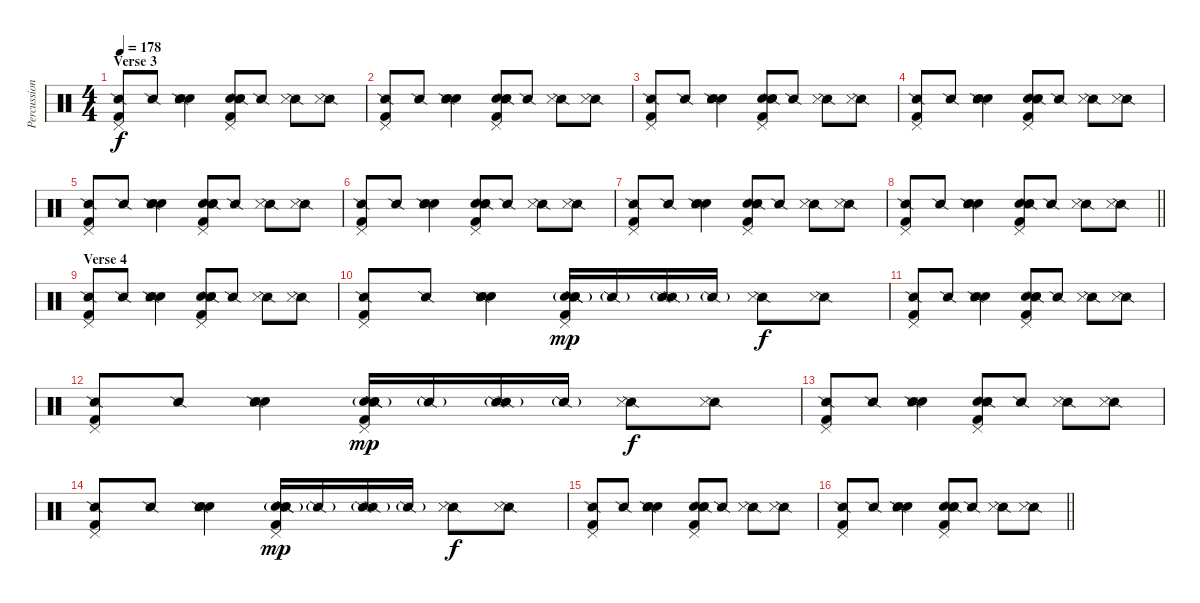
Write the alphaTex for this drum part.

\track ("Percussion" "Percussion") {instrument percussion}
\staff {score}
\articulation defaults
\ts (4 4)
\section ("" "Verse 3")
\tempo 178
\clef neutral
\ks c
("Pedal Hi-Hat (hit)" "Kick (hit) 2" "Snare (side stick) 2").8{dy f} "Snare (side stick) 2".8 ("Hand Clap (hit)" "Hand Clap (hit)" "Snare (side stick) 2" "Metronome (hit)").4 ("Pedal Hi-Hat (hit)" "Hand Clap (hit)" "Hand Clap (hit)" "Kick (hit) 2" "Snare (side stick) 2").8 "Snare (side stick) 2".8 ("Snare (side stick) 2" "Metronome (hit)").8 ("Snare (side stick) 2" "Metronome (hit)").8 |
("Pedal Hi-Hat (hit)" "Kick (hit) 2" "Snare (side stick) 2").8 "Snare (side stick) 2".8 ("Hand Clap (hit)" "Hand Clap (hit)" "Snare (side stick) 2" "Metronome (hit)").4 ("Pedal Hi-Hat (hit)" "Hand Clap (hit)" "Hand Clap (hit)" "Kick (hit) 2" "Snare (side stick) 2").8 "Snare (side stick) 2".8 ("Snare (side stick) 2" "Metronome (hit)").8 ("Snare (side stick) 2" "Metronome (hit)").8 |
("Pedal Hi-Hat (hit)" "Kick (hit) 2" "Snare (side stick) 2").8 "Snare (side stick) 2".8 ("Hand Clap (hit)" "Hand Clap (hit)" "Snare (side stick) 2" "Metronome (hit)").4 ("Pedal Hi-Hat (hit)" "Hand Clap (hit)" "Hand Clap (hit)" "Kick (hit) 2" "Snare (side stick) 2").8 "Snare (side stick) 2".8 ("Snare (side stick) 2" "Metronome (hit)").8 ("Snare (side stick) 2" "Metronome (hit)").8 |
("Pedal Hi-Hat (hit)" "Kick (hit) 2" "Snare (side stick) 2").8 "Snare (side stick) 2".8 ("Hand Clap (hit)" "Hand Clap (hit)" "Snare (side stick) 2" "Metronome (hit)").4 ("Pedal Hi-Hat (hit)" "Hand Clap (hit)" "Hand Clap (hit)" "Kick (hit) 2" "Snare (side stick) 2").8 "Snare (side stick) 2".8 ("Snare (side stick) 2" "Metronome (hit)").8 ("Snare (side stick) 2" "Metronome (hit)").8 |
("Pedal Hi-Hat (hit)" "Kick (hit) 2" "Snare (side stick) 2").8 "Snare (side stick) 2".8 ("Hand Clap (hit)" "Hand Clap (hit)" "Snare (side stick) 2" "Metronome (hit)").4 ("Pedal Hi-Hat (hit)" "Hand Clap (hit)" "Hand Clap (hit)" "Kick (hit) 2" "Snare (side stick) 2").8 "Snare (side stick) 2".8 ("Snare (side stick) 2" "Metronome (hit)").8 ("Snare (side stick) 2" "Metronome (hit)").8 |
("Pedal Hi-Hat (hit)" "Kick (hit) 2" "Snare (side stick) 2").8 "Snare (side stick) 2".8 ("Hand Clap (hit)" "Hand Clap (hit)" "Snare (side stick) 2" "Metronome (hit)").4 ("Pedal Hi-Hat (hit)" "Hand Clap (hit)" "Hand Clap (hit)" "Kick (hit) 2" "Snare (side stick) 2").8 "Snare (side stick) 2".8 ("Snare (side stick) 2" "Metronome (hit)").8 ("Snare (side stick) 2" "Metronome (hit)").8 |
("Pedal Hi-Hat (hit)" "Kick (hit) 2" "Snare (side stick) 2").8 "Snare (side stick) 2".8 ("Hand Clap (hit)" "Hand Clap (hit)" "Snare (side stick) 2" "Metronome (hit)").4 ("Pedal Hi-Hat (hit)" "Hand Clap (hit)" "Hand Clap (hit)" "Kick (hit) 2" "Snare (side stick) 2").8 "Snare (side stick) 2".8 ("Snare (side stick) 2" "Metronome (hit)").8 ("Snare (side stick) 2" "Metronome (hit)").8 |
\barLineRight lightlight
("Pedal Hi-Hat (hit)" "Kick (hit) 2" "Snare (side stick) 2").8 "Snare (side stick) 2".8 ("Hand Clap (hit)" "Hand Clap (hit)" "Snare (side stick) 2" "Metronome (hit)").4 ("Pedal Hi-Hat (hit)" "Hand Clap (hit)" "Hand Clap (hit)" "Kick (hit) 2" "Snare (side stick) 2").8 "Snare (side stick) 2".8 ("Snare (side stick) 2" "Metronome (hit)").8 ("Snare (side stick) 2" "Metronome (hit)").8 |
\section ("" "Verse 4")
("Pedal Hi-Hat (hit)" "Kick (hit) 2" "Snare (side stick) 2").8 "Snare (side stick) 2".8 ("Hand Clap (hit)" "Hand Clap (hit)" "Snare (side stick) 2" "Metronome (hit)").4 ("Pedal Hi-Hat (hit)" "Hand Clap (hit)" "Hand Clap (hit)" "Kick (hit) 2" "Snare (side stick) 2").8 "Snare (side stick) 2".8 ("Snare (side stick) 2" "Metronome (hit)").8 ("Snare (side stick) 2" "Metronome (hit)").8 |
("Pedal Hi-Hat (hit)" "Kick (hit) 2" "Snare (side stick) 2").8 "Snare (side stick) 2".8 ("Hand Clap (hit)" "Hand Clap (hit)" "Snare (side stick) 2" "Metronome (hit)").4 ("Pedal Hi-Hat (hit)" "Hand Clap (hit)" "Hand Clap (hit)" "Kick (hit) 2" "Snare (side stick) 2" "Snare (side stick) 2"{g}).16{dy mp} "Snare (side stick) 2"{g}.16 ("Snare (side stick) 2" "Snare (side stick) 2"{g}).16 "Snare (side stick) 2"{g}.16 ("Snare (side stick) 2" "Metronome (hit)").8{dy f} ("Snare (side stick) 2" "Metronome (hit)").8 |
("Pedal Hi-Hat (hit)" "Kick (hit) 2" "Snare (side stick) 2").8 "Snare (side stick) 2".8 ("Hand Clap (hit)" "Hand Clap (hit)" "Snare (side stick) 2" "Metronome (hit)").4 ("Pedal Hi-Hat (hit)" "Hand Clap (hit)" "Hand Clap (hit)" "Kick (hit) 2" "Snare (side stick) 2").8 "Snare (side stick) 2".8 ("Snare (side stick) 2" "Metronome (hit)").8 ("Snare (side stick) 2" "Metronome (hit)").8 |
("Pedal Hi-Hat (hit)" "Kick (hit) 2" "Snare (side stick) 2").8 "Snare (side stick) 2".8 ("Hand Clap (hit)" "Hand Clap (hit)" "Snare (side stick) 2" "Metronome (hit)").4 ("Pedal Hi-Hat (hit)" "Hand Clap (hit)" "Hand Clap (hit)" "Kick (hit) 2" "Snare (side stick) 2" "Snare (side stick) 2"{g}).16{dy mp} "Snare (side stick) 2"{g}.16 ("Snare (side stick) 2" "Snare (side stick) 2"{g}).16 "Snare (side stick) 2"{g}.16 ("Snare (side stick) 2" "Metronome (hit)").8{dy f} ("Snare (side stick) 2" "Metronome (hit)").8 |
("Pedal Hi-Hat (hit)" "Kick (hit) 2" "Snare (side stick) 2").8 "Snare (side stick) 2".8 ("Hand Clap (hit)" "Hand Clap (hit)" "Snare (side stick) 2" "Metronome (hit)").4 ("Pedal Hi-Hat (hit)" "Hand Clap (hit)" "Hand Clap (hit)" "Kick (hit) 2" "Snare (side stick) 2").8 "Snare (side stick) 2".8 ("Snare (side stick) 2" "Metronome (hit)").8 ("Snare (side stick) 2" "Metronome (hit)").8 |
("Pedal Hi-Hat (hit)" "Kick (hit) 2" "Snare (side stick) 2").8 "Snare (side stick) 2".8 ("Hand Clap (hit)" "Hand Clap (hit)" "Snare (side stick) 2" "Metronome (hit)").4 ("Pedal Hi-Hat (hit)" "Hand Clap (hit)" "Hand Clap (hit)" "Kick (hit) 2" "Snare (side stick) 2" "Snare (side stick) 2"{g}).16{dy mp} "Snare (side stick) 2"{g}.16 ("Snare (side stick) 2" "Snare (side stick) 2"{g}).16 "Snare (side stick) 2"{g}.16 ("Snare (side stick) 2" "Metronome (hit)").8{dy f} ("Snare (side stick) 2" "Metronome (hit)").8 |
("Pedal Hi-Hat (hit)" "Kick (hit) 2" "Snare (side stick) 2").8 "Snare (side stick) 2".8 ("Hand Clap (hit)" "Hand Clap (hit)" "Snare (side stick) 2" "Metronome (hit)").4 ("Pedal Hi-Hat (hit)" "Hand Clap (hit)" "Hand Clap (hit)" "Kick (hit) 2" "Snare (side stick) 2").8 "Snare (side stick) 2".8 ("Snare (side stick) 2" "Metronome (hit)").8 ("Snare (side stick) 2" "Metronome (hit)").8 |
\barLineRight lightlight
("Pedal Hi-Hat (hit)" "Kick (hit) 2" "Snare (side stick) 2").8 "Snare (side stick) 2".8 ("Hand Clap (hit)" "Hand Clap (hit)" "Snare (side stick) 2" "Metronome (hit)").4 ("Pedal Hi-Hat (hit)" "Hand Clap (hit)" "Hand Clap (hit)" "Kick (hit) 2" "Snare (side stick) 2").8 "Snare (side stick) 2".8 ("Snare (side stick) 2" "Metronome (hit)").8 ("Snare (side stick) 2" "Metronome (hit)").8
